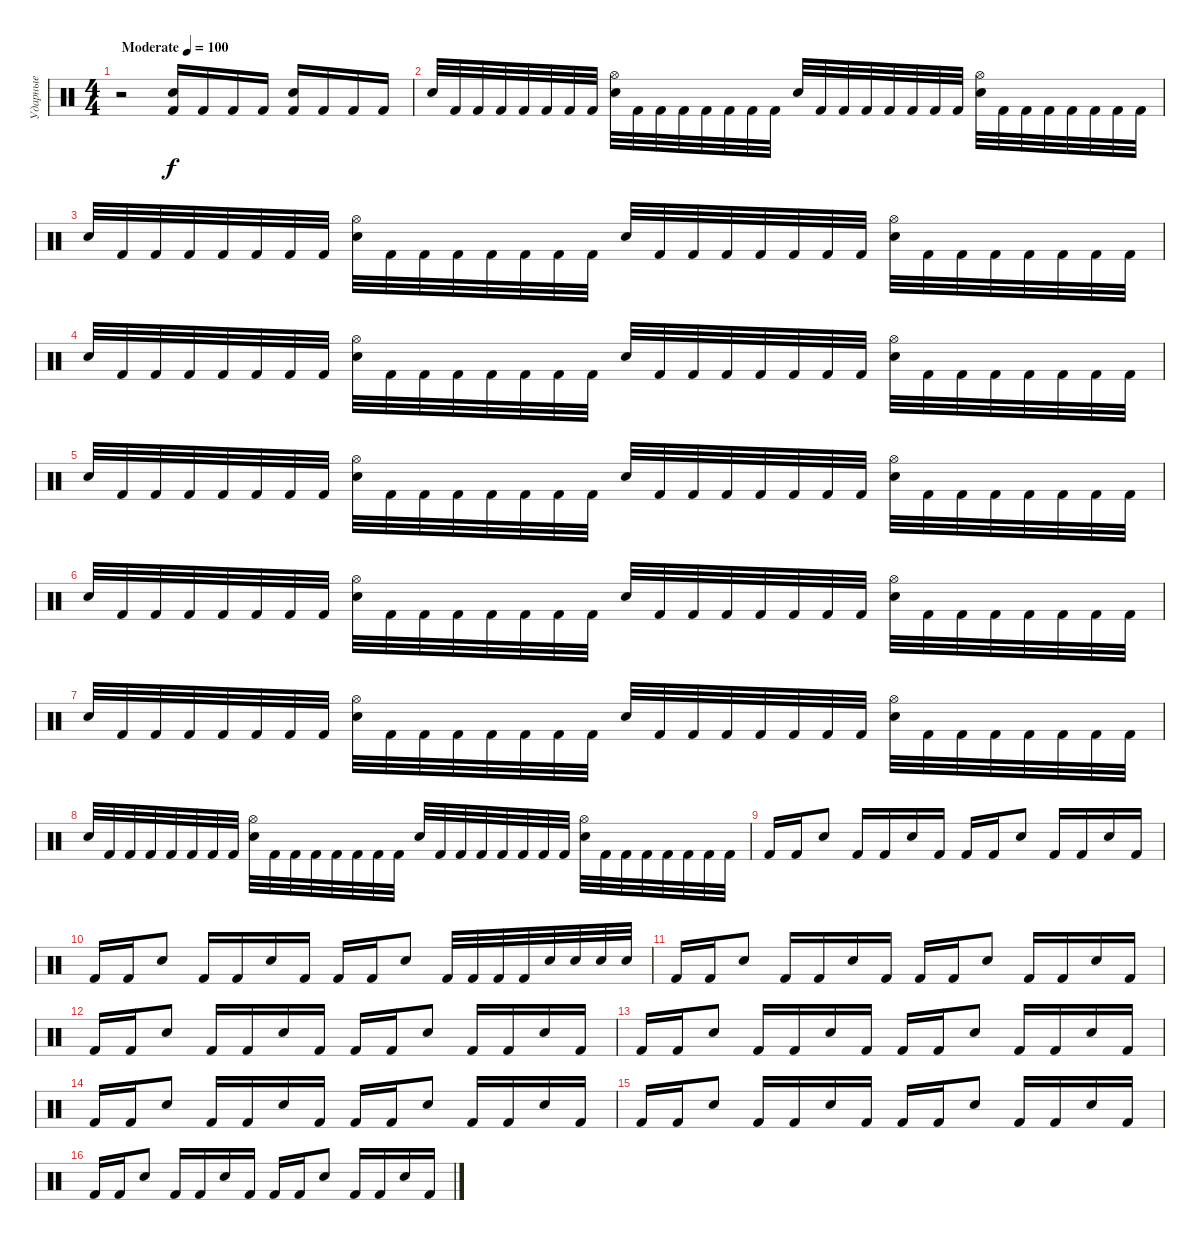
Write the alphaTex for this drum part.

\track ("Ударные" "Ударные") {instrument percussion}
\staff {score}
\articulation defaults
\ts (4 4)
\tempo (100 "Moderate")
\clef neutral
\ks c
r.2{dy f} ("Electric Snare (hit)" "Kick (hit) 2").16 "Kick (hit) 2".16 "Kick (hit) 2".16 "Kick (hit) 2".16 ("Electric Snare (hit)" "Kick (hit) 2").16 "Kick (hit) 2".16 "Kick (hit) 2".16 "Kick (hit) 2".16 |
"Electric Snare (hit)".32 "Kick (hit) 2".32 "Kick (hit) 2".32 "Kick (hit) 2".32 "Kick (hit) 2".32 "Kick (hit) 2".32 "Kick (hit) 2".32 "Kick (hit) 2".32 ("Hi-Hat (open)" "Electric Snare (hit)").32 "Kick (hit) 2".32 "Kick (hit) 2".32 "Kick (hit) 2".32 "Kick (hit) 2".32 "Kick (hit) 2".32 "Kick (hit) 2".32 "Kick (hit) 2".32 "Electric Snare (hit)".32 "Kick (hit) 2".32 "Kick (hit) 2".32 "Kick (hit) 2".32 "Kick (hit) 2".32 "Kick (hit) 2".32 "Kick (hit) 2".32 "Kick (hit) 2".32 ("Hi-Hat (open)" "Electric Snare (hit)").32 "Kick (hit) 2".32 "Kick (hit) 2".32 "Kick (hit) 2".32 "Kick (hit) 2".32 "Kick (hit) 2".32 "Kick (hit) 2".32 "Kick (hit) 2".32 |
"Electric Snare (hit)".32 "Kick (hit) 2".32 "Kick (hit) 2".32 "Kick (hit) 2".32 "Kick (hit) 2".32 "Kick (hit) 2".32 "Kick (hit) 2".32 "Kick (hit) 2".32 ("Hi-Hat (open)" "Electric Snare (hit)").32 "Kick (hit) 2".32 "Kick (hit) 2".32 "Kick (hit) 2".32 "Kick (hit) 2".32 "Kick (hit) 2".32 "Kick (hit) 2".32 "Kick (hit) 2".32 "Electric Snare (hit)".32 "Kick (hit) 2".32 "Kick (hit) 2".32 "Kick (hit) 2".32 "Kick (hit) 2".32 "Kick (hit) 2".32 "Kick (hit) 2".32 "Kick (hit) 2".32 ("Hi-Hat (open)" "Electric Snare (hit)").32 "Kick (hit) 2".32 "Kick (hit) 2".32 "Kick (hit) 2".32 "Kick (hit) 2".32 "Kick (hit) 2".32 "Kick (hit) 2".32 "Kick (hit) 2".32 |
"Electric Snare (hit)".32 "Kick (hit) 2".32 "Kick (hit) 2".32 "Kick (hit) 2".32 "Kick (hit) 2".32 "Kick (hit) 2".32 "Kick (hit) 2".32 "Kick (hit) 2".32 ("Hi-Hat (open)" "Electric Snare (hit)").32 "Kick (hit) 2".32 "Kick (hit) 2".32 "Kick (hit) 2".32 "Kick (hit) 2".32 "Kick (hit) 2".32 "Kick (hit) 2".32 "Kick (hit) 2".32 "Electric Snare (hit)".32 "Kick (hit) 2".32 "Kick (hit) 2".32 "Kick (hit) 2".32 "Kick (hit) 2".32 "Kick (hit) 2".32 "Kick (hit) 2".32 "Kick (hit) 2".32 ("Hi-Hat (open)" "Electric Snare (hit)").32 "Kick (hit) 2".32 "Kick (hit) 2".32 "Kick (hit) 2".32 "Kick (hit) 2".32 "Kick (hit) 2".32 "Kick (hit) 2".32 "Kick (hit) 2".32 |
"Electric Snare (hit)".32 "Kick (hit) 2".32 "Kick (hit) 2".32 "Kick (hit) 2".32 "Kick (hit) 2".32 "Kick (hit) 2".32 "Kick (hit) 2".32 "Kick (hit) 2".32 ("Hi-Hat (open)" "Electric Snare (hit)").32 "Kick (hit) 2".32 "Kick (hit) 2".32 "Kick (hit) 2".32 "Kick (hit) 2".32 "Kick (hit) 2".32 "Kick (hit) 2".32 "Kick (hit) 2".32 "Electric Snare (hit)".32 "Kick (hit) 2".32 "Kick (hit) 2".32 "Kick (hit) 2".32 "Kick (hit) 2".32 "Kick (hit) 2".32 "Kick (hit) 2".32 "Kick (hit) 2".32 ("Hi-Hat (open)" "Electric Snare (hit)").32 "Kick (hit) 2".32 "Kick (hit) 2".32 "Kick (hit) 2".32 "Kick (hit) 2".32 "Kick (hit) 2".32 "Kick (hit) 2".32 "Kick (hit) 2".32 |
"Electric Snare (hit)".32 "Kick (hit) 2".32 "Kick (hit) 2".32 "Kick (hit) 2".32 "Kick (hit) 2".32 "Kick (hit) 2".32 "Kick (hit) 2".32 "Kick (hit) 2".32 ("Hi-Hat (open)" "Electric Snare (hit)").32 "Kick (hit) 2".32 "Kick (hit) 2".32 "Kick (hit) 2".32 "Kick (hit) 2".32 "Kick (hit) 2".32 "Kick (hit) 2".32 "Kick (hit) 2".32 "Electric Snare (hit)".32 "Kick (hit) 2".32 "Kick (hit) 2".32 "Kick (hit) 2".32 "Kick (hit) 2".32 "Kick (hit) 2".32 "Kick (hit) 2".32 "Kick (hit) 2".32 ("Hi-Hat (open)" "Electric Snare (hit)").32 "Kick (hit) 2".32 "Kick (hit) 2".32 "Kick (hit) 2".32 "Kick (hit) 2".32 "Kick (hit) 2".32 "Kick (hit) 2".32 "Kick (hit) 2".32 |
"Electric Snare (hit)".32 "Kick (hit) 2".32 "Kick (hit) 2".32 "Kick (hit) 2".32 "Kick (hit) 2".32 "Kick (hit) 2".32 "Kick (hit) 2".32 "Kick (hit) 2".32 ("Hi-Hat (open)" "Electric Snare (hit)").32 "Kick (hit) 2".32 "Kick (hit) 2".32 "Kick (hit) 2".32 "Kick (hit) 2".32 "Kick (hit) 2".32 "Kick (hit) 2".32 "Kick (hit) 2".32 "Electric Snare (hit)".32 "Kick (hit) 2".32 "Kick (hit) 2".32 "Kick (hit) 2".32 "Kick (hit) 2".32 "Kick (hit) 2".32 "Kick (hit) 2".32 "Kick (hit) 2".32 ("Hi-Hat (open)" "Electric Snare (hit)").32 "Kick (hit) 2".32 "Kick (hit) 2".32 "Kick (hit) 2".32 "Kick (hit) 2".32 "Kick (hit) 2".32 "Kick (hit) 2".32 "Kick (hit) 2".32 |
"Electric Snare (hit)".32 "Kick (hit) 2".32 "Kick (hit) 2".32 "Kick (hit) 2".32 "Kick (hit) 2".32 "Kick (hit) 2".32 "Kick (hit) 2".32 "Kick (hit) 2".32 ("Hi-Hat (open)" "Electric Snare (hit)").32 "Kick (hit) 2".32 "Kick (hit) 2".32 "Kick (hit) 2".32 "Kick (hit) 2".32 "Kick (hit) 2".32 "Kick (hit) 2".32 "Kick (hit) 2".32 "Electric Snare (hit)".32 "Kick (hit) 2".32 "Kick (hit) 2".32 "Kick (hit) 2".32 "Kick (hit) 2".32 "Kick (hit) 2".32 "Kick (hit) 2".32 "Kick (hit) 2".32 ("Hi-Hat (open)" "Electric Snare (hit)").32 "Kick (hit) 2".32 "Kick (hit) 2".32 "Kick (hit) 2".32 "Kick (hit) 2".32 "Kick (hit) 2".32 "Kick (hit) 2".32 "Kick (hit) 2".32 |
"Kick (hit) 2".16 "Kick (hit) 2".16 "Electric Snare (hit)".8 "Kick (hit) 2".16 "Kick (hit) 2".16 "Electric Snare (hit)".16 "Kick (hit) 2".16 "Kick (hit) 2".16 "Kick (hit) 2".16 "Electric Snare (hit)".8 "Kick (hit) 2".16 "Kick (hit) 2".16 "Electric Snare (hit)".16 "Kick (hit) 2".16 |
"Kick (hit) 2".16 "Kick (hit) 2".16 "Electric Snare (hit)".8 "Kick (hit) 2".16 "Kick (hit) 2".16 "Electric Snare (hit)".16 "Kick (hit) 2".16 "Kick (hit) 2".16 "Kick (hit) 2".16 "Electric Snare (hit)".8 "Kick (hit) 2".32 "Kick (hit) 2".32 "Kick (hit) 2".32 "Kick (hit) 2".32 "Electric Snare (hit)".32 "Electric Snare (hit)".32 "Electric Snare (hit)".32 "Electric Snare (hit)".32 |
"Kick (hit) 2".16 "Kick (hit) 2".16 "Electric Snare (hit)".8 "Kick (hit) 2".16 "Kick (hit) 2".16 "Electric Snare (hit)".16 "Kick (hit) 2".16 "Kick (hit) 2".16 "Kick (hit) 2".16 "Electric Snare (hit)".8 "Kick (hit) 2".16 "Kick (hit) 2".16 "Electric Snare (hit)".16 "Kick (hit) 2".16 |
"Kick (hit) 2".16 "Kick (hit) 2".16 "Electric Snare (hit)".8 "Kick (hit) 2".16 "Kick (hit) 2".16 "Electric Snare (hit)".16 "Kick (hit) 2".16 "Kick (hit) 2".16 "Kick (hit) 2".16 "Electric Snare (hit)".8 "Kick (hit) 2".16 "Kick (hit) 2".16 "Electric Snare (hit)".16 "Kick (hit) 2".16 |
"Kick (hit) 2".16 "Kick (hit) 2".16 "Electric Snare (hit)".8 "Kick (hit) 2".16 "Kick (hit) 2".16 "Electric Snare (hit)".16 "Kick (hit) 2".16 "Kick (hit) 2".16 "Kick (hit) 2".16 "Electric Snare (hit)".8 "Kick (hit) 2".16 "Kick (hit) 2".16 "Electric Snare (hit)".16 "Kick (hit) 2".16 |
"Kick (hit) 2".16 "Kick (hit) 2".16 "Electric Snare (hit)".8 "Kick (hit) 2".16 "Kick (hit) 2".16 "Electric Snare (hit)".16 "Kick (hit) 2".16 "Kick (hit) 2".16 "Kick (hit) 2".16 "Electric Snare (hit)".8 "Kick (hit) 2".16 "Kick (hit) 2".16 "Electric Snare (hit)".16 "Kick (hit) 2".16 |
"Kick (hit) 2".16 "Kick (hit) 2".16 "Electric Snare (hit)".8 "Kick (hit) 2".16 "Kick (hit) 2".16 "Electric Snare (hit)".16 "Kick (hit) 2".16 "Kick (hit) 2".16 "Kick (hit) 2".16 "Electric Snare (hit)".8 "Kick (hit) 2".16 "Kick (hit) 2".16 "Electric Snare (hit)".16 "Kick (hit) 2".16 |
"Kick (hit) 2".16 "Kick (hit) 2".16 "Electric Snare (hit)".8 "Kick (hit) 2".16 "Kick (hit) 2".16 "Electric Snare (hit)".16 "Kick (hit) 2".16 "Kick (hit) 2".16 "Kick (hit) 2".16 "Electric Snare (hit)".8 "Kick (hit) 2".16 "Kick (hit) 2".16 "Electric Snare (hit)".16 "Kick (hit) 2".16
